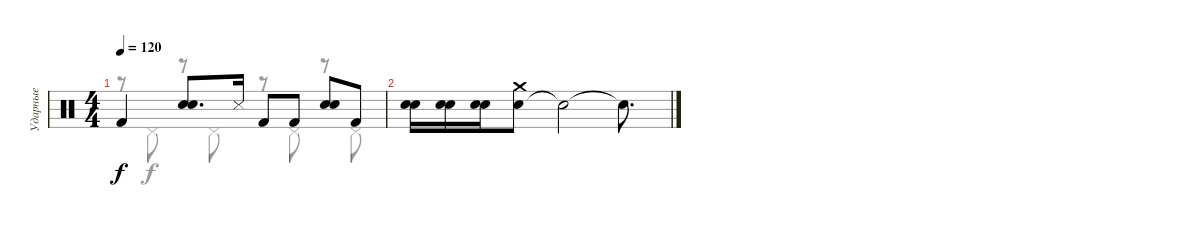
\track ("Ударные" "Ударные") {instrument percussion}
\staff {score}
\articulation defaults
\voice
\ts (4 4)
\tempo 120
\clef neutral
\ks c "Kick (hit) 2".4{dy f}
("Hand Clap (hit)" "Snare (hit) 2").8{d} "Metronome (hit)".16 "Kick (hit) 2".8 "Kick (hit) 2".8 ("Hand Clap (hit)" "Snare (hit) 2").8 "Kick (hit) 2".8 |
("Snare (hit) 2" "Hand Clap (hit)").16 ("Snare (hit) 2" "Hand Clap (hit)").16 ("Snare (hit) 2" "Hand Clap (hit)").16 ("Snare (hit) 2" "Crash medium (hit)").8 "Snare (hit)"{t}.2 "Snare (hit)"{t}.8{d}
\voice
\clef neutral
\ottava regular
\simile none
\ks c
r.8{dy f} "Pedal Hi-Hat (hit)".8 r.8 "Pedal Hi-Hat (hit)".8 r.8 "Pedal Hi-Hat (hit)".8 r.8 "Pedal Hi-Hat (hit)".8 |
